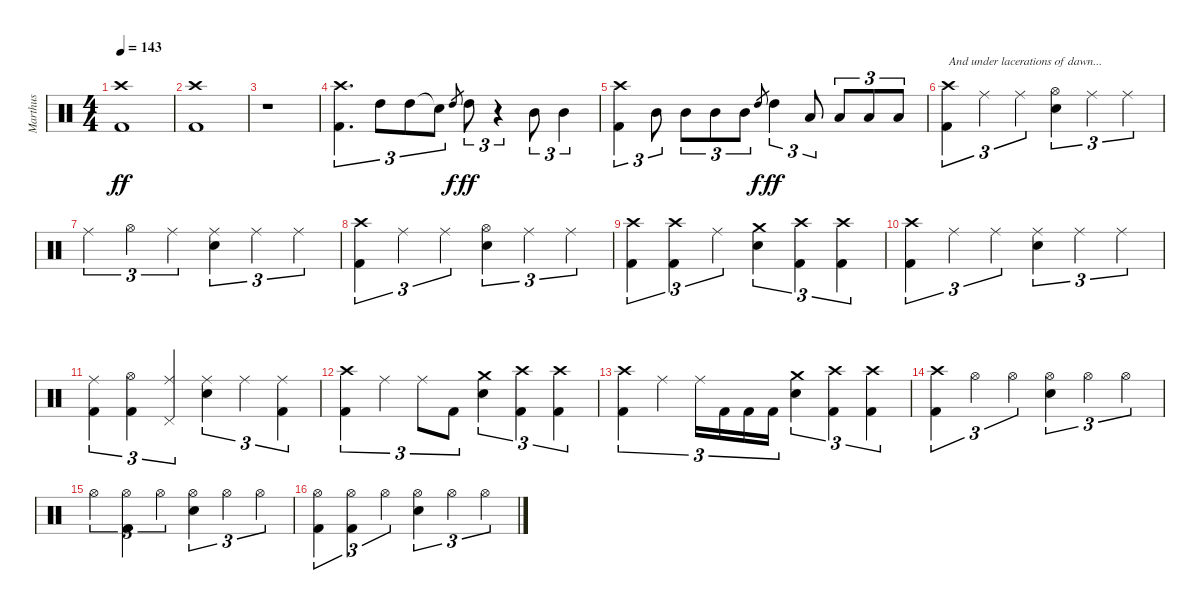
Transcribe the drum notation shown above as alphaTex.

\track ("Marthus" "Marthus") {instrument percussion}
\staff {score}
\articulation defaults
\ts (4 4)
\tempo 143
\clef neutral
\ks c
("Crash high (hit)" "Kick (hit) 2").1{dy ff} |
("Crash high (hit)" "Kick (hit) 2").1 |
r.1 |
("Crash high (hit)" "Kick (hit) 2").4{d tu (3 2)} "High Tom (hit)".8{tu (3 2)} "High Tom (hit)".8{tu (3 2)} "Snare (hit)"{t}.8{tu (3 2)} "High Tom (hit)".8{gr dy f} "High Tom (hit)".8{tu (3 2) dy ff} r.4{tu (3 2)} "Mid Tom (hit)".8{tu (3 2)} "Mid Tom (hit)".4{tu (3 2)} |
("Crash high (hit)" "Kick (hit) 2").4{tu (3 2)} "Mid Tom (hit)".8{tu (3 2)} "Mid Tom (hit)".8{tu (3 2)} "Mid Tom (hit)".8{tu (3 2)} "Mid Tom (hit)".8{tu (3 2)} "High Tom (hit)".8{gr dy f} "High Tom (hit)".4{tu (3 2) dy ff} "Low Tom (hit)".8{tu (3 2)} "Low Tom (hit)".8{tu (3 2)} "Low Tom (hit)".8{tu (3 2)} "Low Tom (hit)".8{tu (3 2)} |
("Crash high (hit)" "Kick (hit) 2").4{tu (3 2) txt "And under lacerations of dawn..."} "Ride (middle)".4{tu (3 2)} "Ride (middle)".4{tu (3 2)} ("Hi-Hat (open)" "Electric Snare (hit)").4{tu (3 2)} "Ride (middle)".4{tu (3 2)} "Ride (middle)".4{tu (3 2)} |
"Ride (middle)".4{tu (3 2)} "Hi-Hat (open)".4{tu (3 2)} "Ride (middle)".4{tu (3 2)} ("Ride (middle)" "Electric Snare (hit)").4{tu (3 2)} "Ride (middle)".4{tu (3 2)} "Ride (middle)".4{tu (3 2)} |
("Crash high (hit)" "Kick (hit) 2").4{tu (3 2)} "Ride (middle)".4{tu (3 2)} "Ride (middle)".4{tu (3 2)} ("Hi-Hat (open)" "Electric Snare (hit)").4{tu (3 2)} "Ride (middle)".4{tu (3 2)} "Ride (middle)".4{tu (3 2)} |
("Crash high (hit)" "Kick (hit) 2").4{tu (3 2)} ("Crash high (hit)" "Kick (hit) 2").4{tu (3 2)} "Ride (middle)".4{tu (3 2)} ("Crash medium (hit)" "Electric Snare (hit)").4{tu (3 2)} ("Crash high (hit)" "Kick (hit) 2").4{tu (3 2)} ("Crash high (hit)" "Kick (hit) 2").4{tu (3 2)} |
("Crash high (hit)" "Kick (hit) 2").4{tu (3 2)} "Ride (middle)".4{tu (3 2)} "Ride (middle)".4{tu (3 2)} ("Ride (middle)" "Electric Snare (hit)").4{tu (3 2)} "Ride (middle)".4{tu (3 2)} "Ride (middle)".4{tu (3 2)} |
("Ride (middle)" "Kick (hit) 2").4{tu (3 2)} ("Hi-Hat (open)" "Kick (hit) 2").4{tu (3 2)} ("Ride (middle)" "Pedal Hi-Hat (hit)").4{tu (3 2)} ("Ride (middle)" "Electric Snare (hit)").4{tu (3 2)} "Ride (middle)".4{tu (3 2)} ("Ride (middle)" "Kick (hit) 2").4{tu (3 2)} |
("Crash high (hit)" "Kick (hit) 2").4{tu (3 2)} "Ride (middle)".4{tu (3 2)} "Ride (middle)".8{tu (3 2)} "Kick (hit) 2".8{tu (3 2)} ("Crash medium (hit)" "Electric Snare (hit)").4{tu (3 2)} ("Crash high (hit)" "Kick (hit) 2").4{tu (3 2)} ("Crash high (hit)" "Kick (hit) 2").4{tu (3 2)} |
("Crash high (hit)" "Kick (hit) 2").4{tu (3 2)} "Ride (middle)".4{tu (3 2)} "Ride (middle)".16{tu (3 2)} "Kick (hit) 2".16{tu (3 2)} "Kick (hit) 2".16{tu (3 2)} "Kick (hit) 2".16{tu (3 2)} ("Crash medium (hit)" "Electric Snare (hit)").4{tu (3 2)} ("Crash high (hit)" "Kick (hit) 2").4{tu (3 2)} ("Crash high (hit)" "Kick (hit) 2").4{tu (3 2)} |
("Crash high (hit)" "Kick (hit) 2").4{tu (3 2)} "Hi-Hat (open)".4{tu (3 2)} "Hi-Hat (open)".4{tu (3 2)} ("Hi-Hat (open)" "Electric Snare (hit)").4{tu (3 2)} "Hi-Hat (open)".4{tu (3 2)} "Hi-Hat (open)".4{tu (3 2)} |
"Hi-Hat (open)".4{tu (3 2)} ("Hi-Hat (open)" "Kick (hit) 2").4{tu (3 2)} "Hi-Hat (open)".4{tu (3 2)} ("Hi-Hat (open)" "Electric Snare (hit)").4{tu (3 2)} "Hi-Hat (open)".4{tu (3 2)} "Hi-Hat (open)".4{tu (3 2)} |
("Hi-Hat (open)" "Kick (hit) 2").4{tu (3 2)} ("Hi-Hat (open)" "Kick (hit) 2").4{tu (3 2)} "Hi-Hat (open)".4{tu (3 2)} ("Hi-Hat (open)" "Electric Snare (hit)").4{tu (3 2)} "Hi-Hat (open)".4{tu (3 2)} "Hi-Hat (open)".4{tu (3 2)}
